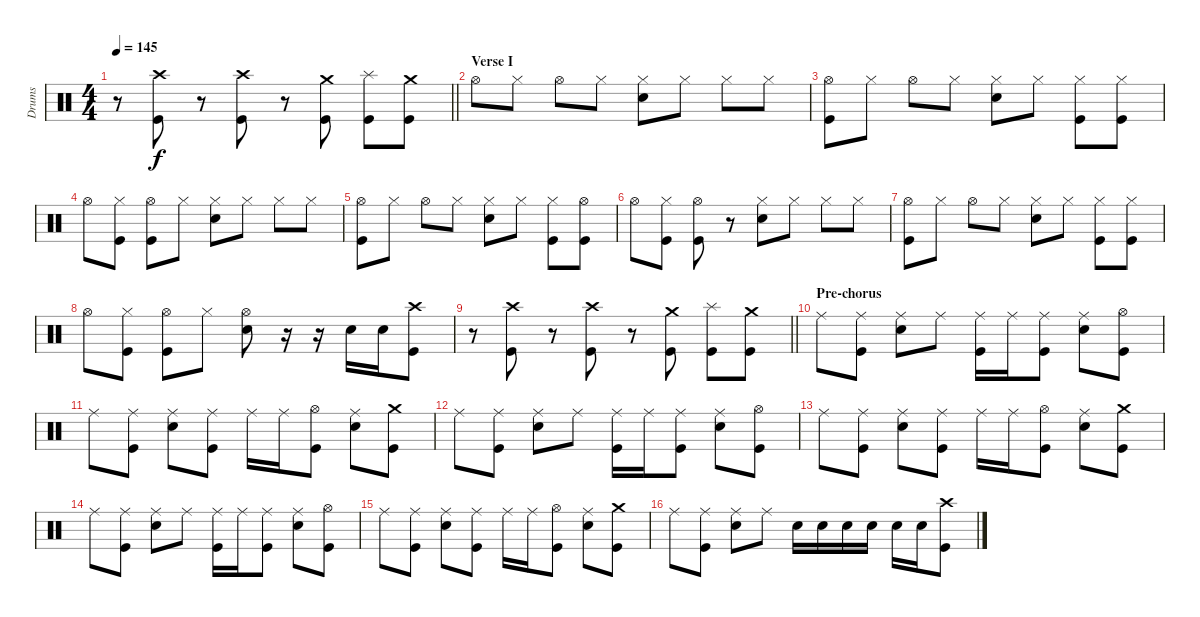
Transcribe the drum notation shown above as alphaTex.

\track ("Drums" "Drums") {instrument percussion}
\staff {score}
\articulation defaults
\ts (4 4)
\tempo 145
\clef neutral
\barLineRight lightlight
\ks c
r.8{dy f} ("Crash high (hit)" "Kick (hit)").8 r.8 ("Crash high (hit)" "Kick (hit)").8 r.8 ("Crash medium (hit)" "Kick (hit)").8 ("Splash (hit)" "Kick (hit)").8 ("Crash medium (hit)" "Kick (hit)").8 |
\section ("" "Verse I")
"Hi-Hat (open)".8 "Hi-Hat (closed)".8 "Hi-Hat (open)".8 "Hi-Hat (closed)".8 ("Hi-Hat (closed)" "Electric Snare (hit)").8 "Hi-Hat (closed)".8 "Hi-Hat (closed)".8 "Hi-Hat (closed)".8 |
("Hi-Hat (open)" "Kick (hit)").8 "Hi-Hat (closed)".8 "Hi-Hat (open)".8 "Hi-Hat (closed)".8 ("Hi-Hat (closed)" "Electric Snare (hit)").8 "Hi-Hat (closed)".8 ("Hi-Hat (closed)" "Kick (hit)").8 ("Hi-Hat (closed)" "Kick (hit)").8 |
"Hi-Hat (open)".8 ("Hi-Hat (closed)" "Kick (hit)").8 ("Hi-Hat (open)" "Kick (hit)").8 "Hi-Hat (closed)".8 ("Hi-Hat (closed)" "Electric Snare (hit)").8 "Hi-Hat (closed)".8 "Hi-Hat (closed)".8 "Hi-Hat (closed)".8 |
("Hi-Hat (open)" "Kick (hit)").8 "Hi-Hat (closed)".8 "Hi-Hat (open)".8 "Hi-Hat (closed)".8 ("Hi-Hat (closed)" "Electric Snare (hit)").8 "Hi-Hat (closed)".8 ("Hi-Hat (closed)" "Kick (hit)").8 ("Hi-Hat (open)" "Kick (hit)").8 |
"Hi-Hat (open)".8 ("Hi-Hat (closed)" "Kick (hit)").8 ("Hi-Hat (open)" "Kick (hit)").8 r.8 ("Hi-Hat (closed)" "Electric Snare (hit)").8 "Hi-Hat (closed)".8 "Hi-Hat (closed)".8 "Hi-Hat (closed)".8 |
("Hi-Hat (open)" "Kick (hit)").8 "Hi-Hat (closed)".8 "Hi-Hat (open)".8 "Hi-Hat (closed)".8 ("Hi-Hat (closed)" "Electric Snare (hit)").8 "Hi-Hat (closed)".8 ("Hi-Hat (closed)" "Kick (hit)").8 ("Hi-Hat (closed)" "Kick (hit)").8 |
"Hi-Hat (open)".8 ("Hi-Hat (closed)" "Kick (hit)").8 ("Hi-Hat (open)" "Kick (hit)").8 "Hi-Hat (closed)".8 ("Hi-Hat (open)" "Electric Snare (hit)").8 r.16 r.16 "Electric Snare (hit)".16 "Electric Snare (hit)".16 ("Crash high (hit)" "Kick (hit)").8 |
\barLineRight lightlight
r.8 ("Crash high (hit)" "Kick (hit)").8 r.8 ("Crash high (hit)" "Kick (hit)").8 r.8 ("Crash medium (hit)" "Kick (hit)").8 ("Splash (hit)" "Kick (hit)").8 ("Crash medium (hit)" "Kick (hit)").8 |
\section ("" "Pre-chorus")
"Ride (middle)".8 ("Ride (middle)" "Kick (hit)").8 ("Ride (middle)" "Electric Snare (hit)").8 "Ride (middle)".8 ("Ride (middle)" "Kick (hit)").16 "Ride (middle)".16 ("Ride (middle)" "Kick (hit)").8 ("Ride (middle)" "Electric Snare (hit)").8 ("Hi-Hat (open)" "Kick (hit)").8 |
"Ride (middle)".8 ("Ride (middle)" "Kick (hit)").8 ("Ride (middle)" "Electric Snare (hit)").8 ("Ride (middle)" "Kick (hit)").8 "Ride (middle)".16 "Ride (middle)".16 ("Hi-Hat (open)" "Kick (hit)").8 ("Ride (middle)" "Electric Snare (hit)").8 ("Crash medium (hit)" "Kick (hit)").8 |
"Ride (middle)".8 ("Ride (middle)" "Kick (hit)").8 ("Ride (middle)" "Electric Snare (hit)").8 "Ride (middle)".8 ("Ride (middle)" "Kick (hit)").16 "Ride (middle)".16 ("Ride (middle)" "Kick (hit)").8 ("Ride (middle)" "Electric Snare (hit)").8 ("Hi-Hat (open)" "Kick (hit)").8 |
"Ride (middle)".8 ("Ride (middle)" "Kick (hit)").8 ("Ride (middle)" "Electric Snare (hit)").8 ("Ride (middle)" "Kick (hit)").8 "Ride (middle)".16 "Ride (middle)".16 ("Hi-Hat (open)" "Kick (hit)").8 ("Ride (middle)" "Electric Snare (hit)").8 ("Crash medium (hit)" "Kick (hit)").8 |
"Ride (middle)".8 ("Ride (middle)" "Kick (hit)").8 ("Ride (middle)" "Electric Snare (hit)").8 "Ride (middle)".8 ("Ride (middle)" "Kick (hit)").16 "Ride (middle)".16 ("Ride (middle)" "Kick (hit)").8 ("Ride (middle)" "Electric Snare (hit)").8 ("Hi-Hat (open)" "Kick (hit)").8 |
"Ride (middle)".8 ("Ride (middle)" "Kick (hit)").8 ("Ride (middle)" "Electric Snare (hit)").8 ("Ride (middle)" "Kick (hit)").8 "Ride (middle)".16 "Ride (middle)".16 ("Hi-Hat (open)" "Kick (hit)").8 ("Ride (middle)" "Electric Snare (hit)").8 ("Crash medium (hit)" "Kick (hit)").8 |
"Ride (middle)".8 ("Ride (middle)" "Kick (hit)").8 ("Ride (middle)" "Electric Snare (hit)").8 "Ride (middle)".8 "Electric Snare (hit)".16 "Electric Snare (hit)".16 "Electric Snare (hit)".16 "Electric Snare (hit)".16 "Electric Snare (hit)".16 "Electric Snare (hit)".16 ("Crash high (hit)" "Kick (hit)").8
